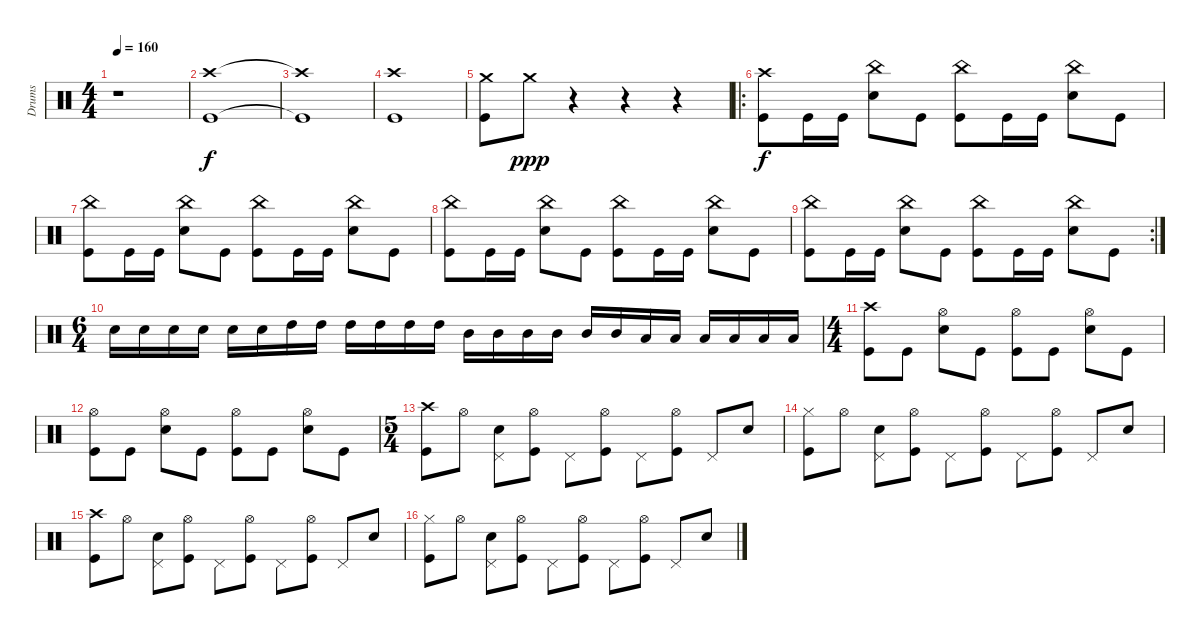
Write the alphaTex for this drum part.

\track ("Drums" "Drums") {instrument percussion}
\staff {score}
\articulation defaults
\ts (4 4)
\tempo 160
\clef neutral
\ks c
r.1{dy f} |
("Crash high (hit)" "Kick (hit)").1{volume 16} |
("Crash high (hit)"{t} "Kick (hit)"{t}).1 |
("Crash high (hit)" "Kick (hit)").1 |
("Crash medium (hit)" "Kick (hit)").8 "Crash medium (hit)".8{dy ppp} r.4 r.4 r.4 |
\ro
("Crash high (hit)" "Kick (hit)").8{dy f} "Kick (hit)".16 "Kick (hit)".16 ("China (hit)" "Electric Snare (hit)").8 "Kick (hit)".8 ("China (hit)" "Kick (hit)").8 "Kick (hit)".16 "Kick (hit)".16 ("China (hit)" "Electric Snare (hit)").8 "Kick (hit)".8 |
("China (hit)" "Kick (hit)").8 "Kick (hit)".16 "Kick (hit)".16 ("China (hit)" "Electric Snare (hit)").8 "Kick (hit)".8 ("China (hit)" "Kick (hit)").8 "Kick (hit)".16 "Kick (hit)".16 ("China (hit)" "Electric Snare (hit)").8 "Kick (hit)".8 |
("China (hit)" "Kick (hit)").8 "Kick (hit)".16 "Kick (hit)".16 ("China (hit)" "Electric Snare (hit)").8 "Kick (hit)".8 ("China (hit)" "Kick (hit)").8 "Kick (hit)".16 "Kick (hit)".16 ("China (hit)" "Electric Snare (hit)").8 "Kick (hit)".8 |
\rc 2
("China (hit)" "Kick (hit)").8 "Kick (hit)".16 "Kick (hit)".16 ("China (hit)" "Electric Snare (hit)").8 "Kick (hit)".8 ("China (hit)" "Kick (hit)").8 "Kick (hit)".16 "Kick (hit)".16 ("China (hit)" "Electric Snare (hit)").8 "Kick (hit)".8 |
\ts (6 4)
"Electric Snare (hit)".16 "Electric Snare (hit)".16 "Electric Snare (hit)".16 "Electric Snare (hit)".16 "Electric Snare (hit)".16 "Electric Snare (hit)".16 "High Tom (hit)".16 "High Tom (hit)".16 "High Tom (hit)".16 "High Tom (hit)".16 "High Tom (hit)".16 "High Tom (hit)".16 "Mid Tom (hit)".16 "Mid Tom (hit)".16 "Mid Tom (hit)".16 "Mid Tom (hit)".16 "Mid Tom (hit)".16 "Mid Tom (hit)".16 "Low Tom (hit)".16 "Low Tom (hit)".16 "Low Tom (hit)".16 "Low Tom (hit)".16 "Low Tom (hit)".16 "Low Tom (hit)".16 |
\ts (4 4)
("Crash high (hit)" "Kick (hit)").8 "Kick (hit)".8 ("Hi-Hat (open)" "Electric Snare (hit)").8 "Kick (hit)".8 ("Hi-Hat (open)" "Kick (hit)").8 "Kick (hit)".8 ("Hi-Hat (open)" "Electric Snare (hit)").8 "Kick (hit)".8 |
("Hi-Hat (open)" "Kick (hit)").8 "Kick (hit)".8 ("Hi-Hat (open)" "Electric Snare (hit)").8 "Kick (hit)".8 ("Hi-Hat (open)" "Kick (hit)").8 "Kick (hit)".8 ("Hi-Hat (open)" "Electric Snare (hit)").8 "Kick (hit)".8 |
\ts (5 4)
("Crash high (hit)" "Kick (hit)").8 "Hi-Hat (open)".8 ("Pedal Hi-Hat (hit)" "Electric Snare (hit)").8 ("Hi-Hat (open)" "Kick (hit)").8 "Pedal Hi-Hat (hit)".8 ("Hi-Hat (open)" "Kick (hit)").8 "Pedal Hi-Hat (hit)".8 ("Hi-Hat (open)" "Kick (hit)").8 "Pedal Hi-Hat (hit)".8 "Electric Snare (hit)".8 |
("Hi-Hat (closed)" "Kick (hit)").8 "Hi-Hat (open)".8 ("Pedal Hi-Hat (hit)" "Electric Snare (hit)").8 ("Hi-Hat (open)" "Kick (hit)").8 "Pedal Hi-Hat (hit)".8 ("Hi-Hat (open)" "Kick (hit)").8 "Pedal Hi-Hat (hit)".8 ("Hi-Hat (open)" "Kick (hit)").8 "Pedal Hi-Hat (hit)".8 "Electric Snare (hit)".8 |
("Crash high (hit)" "Kick (hit)").8 "Hi-Hat (open)".8 ("Pedal Hi-Hat (hit)" "Electric Snare (hit)").8 ("Hi-Hat (open)" "Kick (hit)").8 "Pedal Hi-Hat (hit)".8 ("Hi-Hat (open)" "Kick (hit)").8 "Pedal Hi-Hat (hit)".8 ("Hi-Hat (open)" "Kick (hit)").8 "Pedal Hi-Hat (hit)".8 "Electric Snare (hit)".8 |
("Hi-Hat (closed)" "Kick (hit)").8 "Hi-Hat (open)".8 ("Pedal Hi-Hat (hit)" "Electric Snare (hit)").8 ("Hi-Hat (open)" "Kick (hit)").8 "Pedal Hi-Hat (hit)".8 ("Hi-Hat (open)" "Kick (hit)").8 "Pedal Hi-Hat (hit)".8 ("Hi-Hat (open)" "Kick (hit)").8 "Pedal Hi-Hat (hit)".8 "Electric Snare (hit)".8
